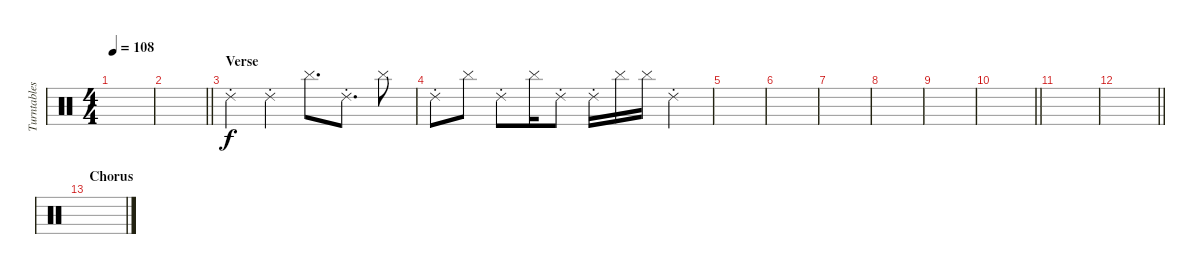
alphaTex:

\track ("Turntables - Joe Hahn" "Turntables") {instrument percussion}
\staff {score}
\articulation defaults
\ts (4 4)
\tempo 108
\clef neutral
\ks c
|
\barLineRight lightlight
|
\section ("" "Verse")
"Ride (choke) 2".4{dy f} "Ride (choke) 2".4 "Cymbal (hit)".8{d} "Ride (choke) 2".8{d} "Cymbal (hit)".8 |
"Ride (choke) 2".8 "Cymbal (hit)".8 "Ride (choke) 2".8 "Cymbal (hit)".16 "Ride (choke) 2".8 "Ride (choke) 2".16 "Cymbal (hit)".16 "Cymbal (hit)".16 "Ride (choke) 2".4 |
|
|
|
|
|
\barLineRight lightlight
|
|
\barLineRight lightlight
|
\section ("" "Chorus")
